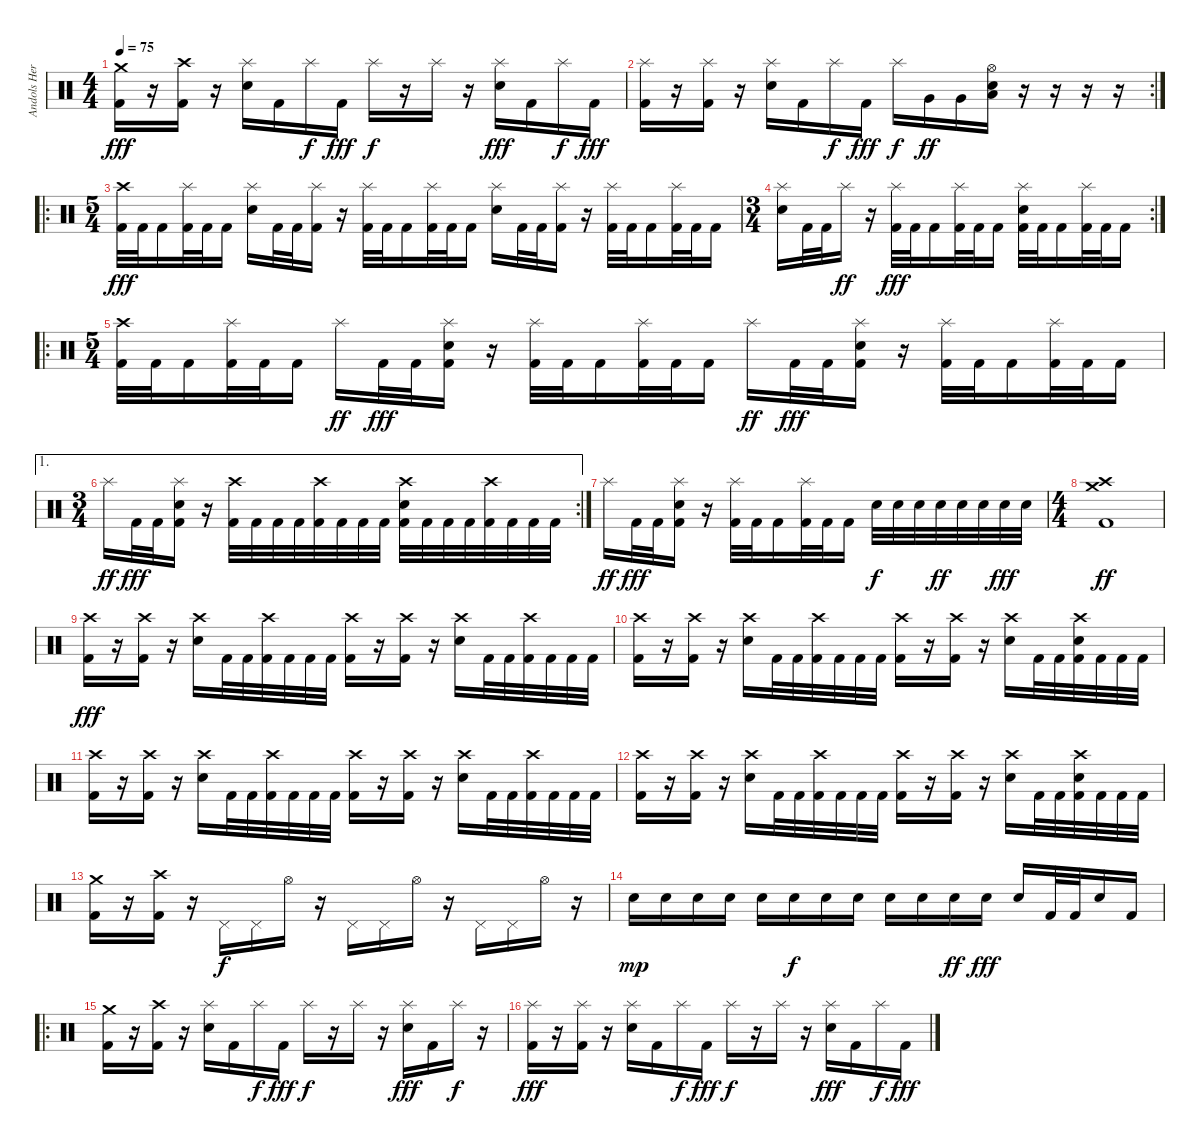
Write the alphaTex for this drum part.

\track ("Andols Herrick" "Andols Her") {instrument percussion}
\staff {score}
\articulation defaults
\ts (4 4)
\tempo 75
\clef neutral
\ks c
("Crash medium (hit)" "Kick (hit) 2").16{dy fff} r.16 ("Crash high (hit)" "Kick (hit) 2").16 r.16 ("Splash (hit)" "Snare (hit) 2").16 "Kick (hit) 2".16 "Splash (hit)".16{dy f} "Kick (hit) 2".16{dy fff} "Splash (hit)".16{dy f} r.16 "Splash (hit)".16 r.16 ("Splash (hit)" "Snare (hit) 2").16{dy fff} "Kick (hit) 2".16 "Splash (hit)".16{dy f} "Kick (hit) 2".16{dy fff} |
\rc 2
("Splash (hit)" "Kick (hit) 2").16 r.16 ("Splash (hit)" "Kick (hit) 2").16 r.16 ("Splash (hit)" "Snare (hit) 2").16 "Kick (hit) 2".16 "Splash (hit)".16{dy f} "Kick (hit) 2".16{dy fff} "Splash (hit)".16{dy f} "Very Low Tom (hit)".16{dy ff} "Very Low Tom (hit)".16 ("Hi-Hat (open)" "Snare (hit) 2" "Low Floor Tom (hit)").16 r.16 r.16 r.16 r.16 |
\ro
\ts (5 4)
("Crash high (hit)" "Kick (hit) 2").32{dy fff} "Kick (hit) 2".32 "Kick (hit) 2".16 ("Splash (hit)" "Kick (hit) 2").32 "Kick (hit) 2".32 "Kick (hit) 2".16 ("Splash (hit)" "Snare (hit) 2").16 "Kick (hit) 2".32 "Kick (hit) 2".32 ("Splash (hit)" "Kick (hit) 2").16 r.16 ("Splash (hit)" "Kick (hit) 2").32 "Kick (hit) 2".32 "Kick (hit) 2".16 ("Splash (hit)" "Kick (hit) 2").32 "Kick (hit) 2".32 "Kick (hit) 2".16 ("Splash (hit)" "Snare (hit) 2").16 "Kick (hit) 2".32 "Kick (hit) 2".32 ("Splash (hit)" "Kick (hit) 2").16 r.16 ("Splash (hit)" "Kick (hit) 2").32 "Kick (hit) 2".32 "Kick (hit) 2".16 ("Splash (hit)" "Kick (hit) 2").32 "Kick (hit) 2".32 "Kick (hit) 2".16 |
\rc 2
\ts (3 4)
("Splash (hit)" "Snare (hit) 2").16 "Kick (hit) 2".32 "Kick (hit) 2".32 "Splash (hit)".16{dy ff} r.16 ("Splash (hit)" "Kick (hit) 2").32{dy fff} "Kick (hit) 2".32 "Kick (hit) 2".16 ("Splash (hit)" "Kick (hit) 2").32 "Kick (hit) 2".32 "Kick (hit) 2".16 ("Splash (hit)" "Snare (hit) 2" "Kick (hit) 2").32 "Kick (hit) 2".32 "Kick (hit) 2".16 ("Splash (hit)" "Kick (hit) 2").32 "Kick (hit) 2".32 "Kick (hit) 2".16 |
\ro
\ts (5 4)
("Crash high (hit)" "Kick (hit) 2").32 "Kick (hit) 2".32 "Kick (hit) 2".16 ("Splash (hit)" "Kick (hit) 2").32 "Kick (hit) 2".32 "Kick (hit) 2".16 "Splash (hit)".16{dy ff} "Kick (hit) 2".32{dy fff} "Kick (hit) 2".32 ("Splash (hit)" "Snare (hit) 2" "Kick (hit) 2").16 r.16 ("Splash (hit)" "Kick (hit) 2").32 "Kick (hit) 2".32 "Kick (hit) 2".16 ("Splash (hit)" "Kick (hit) 2").32 "Kick (hit) 2".32 "Kick (hit) 2".16 "Splash (hit)".16{dy ff} "Kick (hit) 2".32{dy fff} "Kick (hit) 2".32 ("Splash (hit)" "Snare (hit) 2" "Kick (hit) 2").16 r.16 ("Splash (hit)" "Kick (hit) 2").32 "Kick (hit) 2".32 "Kick (hit) 2".16 ("Splash (hit)" "Kick (hit) 2").32 "Kick (hit) 2".32 "Kick (hit) 2".16 |
\ae 1
\rc 2
\ts (3 4)
"Splash (hit)".16{dy ff} "Kick (hit) 2".32{dy fff} "Kick (hit) 2".32 ("Splash (hit)" "Snare (hit) 2" "Kick (hit) 2").16 r.16 ("Crash high (hit)" "Kick (hit) 2").32 "Kick (hit) 2".32 "Kick (hit) 2".32 "Kick (hit) 2".32 ("Crash high (hit)" "Kick (hit) 2").32 "Kick (hit) 2".32 "Kick (hit) 2".32 "Kick (hit) 2".32 ("Crash high (hit)" "Snare (hit) 2" "Kick (hit) 2").32 "Kick (hit) 2".32 "Kick (hit) 2".32 "Kick (hit) 2".32 ("Crash high (hit)" "Kick (hit) 2").32 "Kick (hit) 2".32 "Kick (hit) 2".32 "Kick (hit) 2".32 |
"Splash (hit)".16{dy ff} "Kick (hit) 2".32{dy fff} "Kick (hit) 2".32 ("Splash (hit)" "Snare (hit) 2" "Kick (hit) 2").16 r.16 ("Splash (hit)" "Kick (hit) 2").32 "Kick (hit) 2".32 "Kick (hit) 2".16 ("Splash (hit)" "Kick (hit) 2").32 "Kick (hit) 2".32 "Kick (hit) 2".16 "Electric Snare (hit)".32{dy f} "Electric Snare (hit)".32 "Electric Snare (hit)".32 "Electric Snare (hit)".32{dy ff} "Electric Snare (hit)".32 "Electric Snare (hit)".32 "Electric Snare (hit)".32{dy fff} "Electric Snare (hit)".32 |
\ts (4 4)
("Crash high (hit)" "Crash medium (hit)" "Kick (hit) 2").1{dy ff} |
("Crash high (hit)" "Kick (hit) 2").16{dy fff} r.16 ("Crash high (hit)" "Kick (hit) 2").16 r.16 ("Crash high (hit)" "Snare (hit) 2").16 "Kick (hit) 2".32 "Kick (hit) 2".32 ("Crash high (hit)" "Kick (hit) 2").32 "Kick (hit) 2".32 "Kick (hit) 2".32 "Kick (hit) 2".32 ("Crash high (hit)" "Kick (hit) 2").16 r.16 ("Crash high (hit)" "Kick (hit) 2").16 r.16 ("Crash high (hit)" "Snare (hit) 2").16 "Kick (hit) 2".32 "Kick (hit) 2".32 ("Crash high (hit)" "Kick (hit) 2").32 "Kick (hit) 2".32 "Kick (hit) 2".32 "Kick (hit) 2".32 |
("Crash high (hit)" "Kick (hit) 2").16 r.16 ("Crash high (hit)" "Kick (hit) 2").16 r.16 ("Crash high (hit)" "Snare (hit) 2").16 "Kick (hit) 2".32 "Kick (hit) 2".32 ("Crash high (hit)" "Kick (hit) 2").32 "Kick (hit) 2".32 "Kick (hit) 2".32 "Kick (hit) 2".32 ("Crash high (hit)" "Kick (hit) 2").16 r.16 ("Crash high (hit)" "Kick (hit) 2").16 r.16 ("Crash high (hit)" "Snare (hit) 2").16 "Kick (hit) 2".32 "Kick (hit) 2".32 ("Crash high (hit)" "Snare (hit) 2" "Kick (hit) 2").32 "Kick (hit) 2".32 "Kick (hit) 2".32 "Kick (hit) 2".32 |
("Crash high (hit)" "Kick (hit) 2").16 r.16 ("Crash high (hit)" "Kick (hit) 2").16 r.16 ("Crash high (hit)" "Snare (hit) 2").16 "Kick (hit) 2".32 "Kick (hit) 2".32 ("Crash high (hit)" "Kick (hit) 2").32 "Kick (hit) 2".32 "Kick (hit) 2".32 "Kick (hit) 2".32 ("Crash high (hit)" "Kick (hit) 2").16 r.16 ("Crash high (hit)" "Kick (hit) 2").16 r.16 ("Crash high (hit)" "Snare (hit) 2").16 "Kick (hit) 2".32 "Kick (hit) 2".32 ("Crash high (hit)" "Kick (hit) 2").32 "Kick (hit) 2".32 "Kick (hit) 2".32 "Kick (hit) 2".32 |
("Crash high (hit)" "Kick (hit) 2").16 r.16 ("Crash high (hit)" "Kick (hit) 2").16 r.16 ("Crash high (hit)" "Snare (hit) 2").16 "Kick (hit) 2".32 "Kick (hit) 2".32 ("Crash high (hit)" "Kick (hit) 2").32 "Kick (hit) 2".32 "Kick (hit) 2".32 "Kick (hit) 2".32 ("Crash high (hit)" "Kick (hit) 2").16 r.16 ("Crash high (hit)" "Kick (hit) 2").16 r.16 ("Crash high (hit)" "Snare (hit) 2").16 "Kick (hit) 2".32 "Kick (hit) 2".32 ("Crash high (hit)" "Snare (hit) 2" "Kick (hit) 2").32 "Kick (hit) 2".32 "Kick (hit) 2".32 "Kick (hit) 2".32 |
("Crash medium (hit)" "Kick (hit) 2").16 r.16 ("Crash high (hit)" "Kick (hit) 2").16 r.16 "Pedal Hi-Hat (hit)".16{dy f} "Pedal Hi-Hat (hit)".16 "Hi-Hat (open)".16 r.16 "Pedal Hi-Hat (hit)".16 "Pedal Hi-Hat (hit)".16 "Hi-Hat (open)".16 r.16 "Pedal Hi-Hat (hit)".16 "Pedal Hi-Hat (hit)".16 "Hi-Hat (open)".16 r.16 |
"Snare (hit) 2".16{dy mp} "Snare (hit) 2".16 "Snare (hit) 2".16 "Snare (hit) 2".16 "Snare (hit) 2".16 "Snare (hit) 2".16{dy f} "Snare (hit) 2".16 "Snare (hit) 2".16 "Snare (hit) 2".16 "Snare (hit) 2".16 "Snare (hit) 2".16{dy ff} "Snare (hit) 2".16{dy fff} "Snare (hit) 2".16 "Kick (hit) 2".32 "Kick (hit) 2".32 "Snare (hit) 2".16 "Kick (hit) 2".16 |
\ro
("Crash medium (hit)" "Kick (hit) 2").16 r.16 ("Crash high (hit)" "Kick (hit) 2").16 r.16 ("Splash (hit)" "Snare (hit) 2").16 "Kick (hit) 2".16 "Splash (hit)".16{dy f} "Kick (hit) 2".16{dy fff} "Splash (hit)".16{dy f} r.16 "Splash (hit)".16 r.16 ("Splash (hit)" "Snare (hit) 2").16{dy fff} "Kick (hit) 2".16 "Splash (hit)".16{dy f} r.16 |
("Splash (hit)" "Kick (hit) 2").16{dy fff} r.16 ("Splash (hit)" "Kick (hit) 2").16 r.16 ("Splash (hit)" "Snare (hit) 2").16 "Kick (hit) 2".16 "Splash (hit)".16{dy f} "Kick (hit) 2".16{dy fff} "Splash (hit)".16{dy f} r.16 "Splash (hit)".16 r.16 ("Splash (hit)" "Snare (hit) 2").16{dy fff} "Kick (hit) 2".16 "Splash (hit)".16{dy f} "Kick (hit) 2".16{dy fff}
